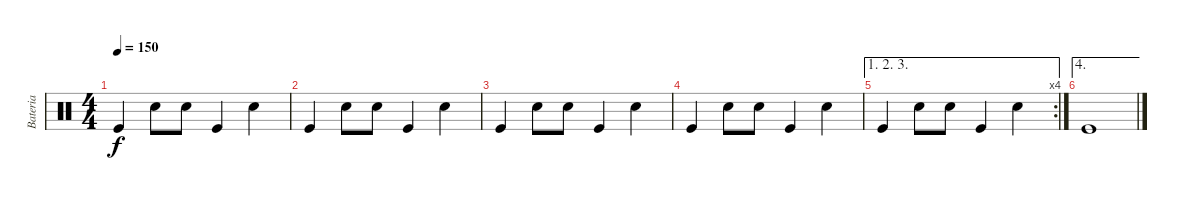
\track ("Bateria" "Bateria") {instrument percussion}
\staff {score}
\articulation defaults
\ts (4 4)
\tempo 150
\clef neutral
\ks c "Kick (hit)".4{dy f} "Snare (hit) 2".8 "Snare (hit) 2".8 "Kick (hit)".4 "Snare (hit) 2".4
|
"Kick (hit)".4 "Snare (hit) 2".8 "Snare (hit) 2".8 "Kick (hit)".4 "Snare (hit) 2".4 |
"Kick (hit)".4 "Snare (hit) 2".8 "Snare (hit) 2".8 "Kick (hit)".4 "Snare (hit) 2".4 |
"Kick (hit)".4 "Snare (hit) 2".8 "Snare (hit) 2".8 "Kick (hit)".4 "Snare (hit) 2".4 |
\ae (1 2 3)
\rc 4 "Kick (hit)".4 "Snare (hit) 2".8 "Snare (hit) 2".8 "Kick (hit)".4 "Snare (hit) 2".4
|
\ae 4 "Kick (hit)".1
